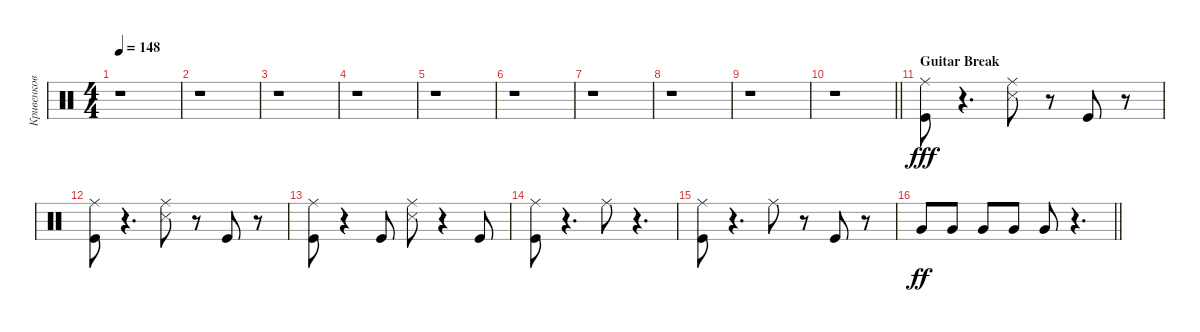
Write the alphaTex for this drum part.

\track ("Кривенков" "Кривенков") {instrument percussion}
\staff {score}
\articulation defaults
\ts (4 4)
\tempo 148
\clef neutral
\ks c
r.1{dy fff} |
r.1 |
r.1 |
r.1 |
r.1 |
r.1 |
r.1 |
r.1 |
r.1 |
\barLineRight lightlight
r.1 |
\section ("" "Guitar Break")
("Ride (middle)" "Kick (hit)").8 r.4{d} ("Snare (side stick) 3" "Ride (middle)").8 r.8 "Kick (hit)".8 r.8 |
("Ride (middle)" "Kick (hit)").8 r.4{d} ("Snare (side stick) 3" "Ride (middle)").8 r.8 "Kick (hit)".8 r.8 |
("Ride (middle)" "Kick (hit)").8 r.4 "Kick (hit)".8 ("Snare (side stick) 3" "Ride (middle)").8 r.4 "Kick (hit)".8 |
("Ride (middle)" "Kick (hit)").8 r.4{d} "Ride (middle)".8 r.4{d} |
("Ride (middle)" "Kick (hit)").8 r.4{d} "Ride (middle)".8 r.8 "Kick (hit)".8 r.8 |
\barLineRight lightlight "Very Low Tom (hit)".8{dy ff} "Very Low Tom (hit)".8 "Very Low Tom (hit)".8 "Very Low Tom (hit)".8 "Very Low Tom (hit)".8
r.4{d}
